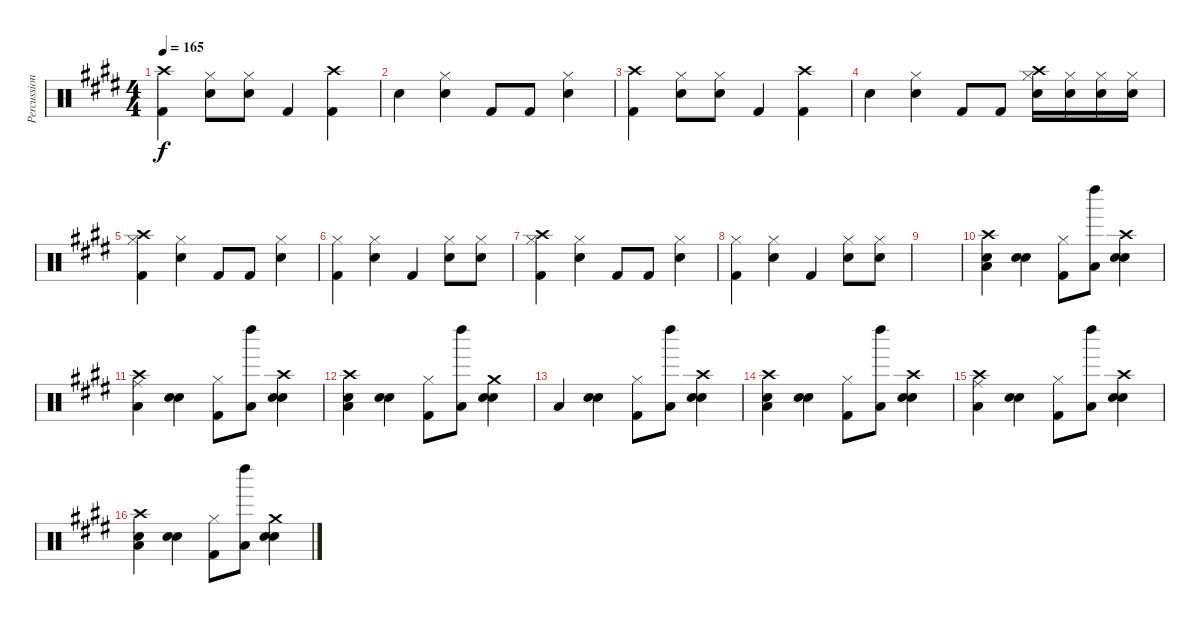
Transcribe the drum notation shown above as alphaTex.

\track ("Percussioni" "Percussion") {instrument percussion}
\staff {score}
\articulation defaults
\ts (4 4)
\tempo 165
\clef neutral
\ks e
("Crash high (hit)" "Kick (hit) 2").4{dy f} ("Snare (hit) 2" "Hi-Hat (closed)").8 ("Snare (hit) 2" "Hi-Hat (closed)").8 "Kick (hit) 2".4 ("Crash high (hit)" "Kick (hit) 2").4 |
"Electric Snare (hit)".4 ("Snare (hit) 2" "Hi-Hat (closed)").4 "Kick (hit) 2".8 "Kick (hit) 2".8 ("Snare (hit) 2" "Hi-Hat (closed)").4 |
("Crash high (hit)" "Kick (hit) 2").4 ("Snare (hit) 2" "Hi-Hat (closed)").8 ("Snare (hit) 2" "Hi-Hat (closed)").8 "Kick (hit) 2".4 ("Crash high (hit)" "Kick (hit) 2").4 |
"Electric Snare (hit)".4 ("Snare (hit) 2" "Hi-Hat (closed)").4 "Kick (hit) 2".8 "Kick (hit) 2".8 ("Snare (hit) 2" "Crash high (hit)" "Hi-Hat (closed)").16 ("Snare (hit) 2" "Hi-Hat (closed)").16 ("Snare (hit) 2" "Hi-Hat (closed)").16 ("Snare (hit) 2" "Hi-Hat (closed)").16 |
("Crash high (hit)" "Kick (hit) 2" "Hi-Hat (closed)").4 ("Snare (hit) 2" "Hi-Hat (closed)").4 "Kick (hit) 2".8 "Kick (hit) 2".8 ("Snare (hit) 2" "Hi-Hat (closed)").4 |
("Kick (hit) 2" "Hi-Hat (closed)").4 ("Snare (hit) 2" "Hi-Hat (closed)").4 "Kick (hit) 2".4 ("Snare (hit) 2" "Hi-Hat (closed)").8 ("Snare (hit) 2" "Hi-Hat (closed)").8 |
("Crash high (hit)" "Kick (hit) 2" "Hi-Hat (closed)").4 ("Snare (hit) 2" "Hi-Hat (closed)").4 "Kick (hit) 2".8 "Kick (hit) 2".8 ("Snare (hit) 2" "Hi-Hat (closed)").4 |
("Kick (hit) 2" "Hi-Hat (closed)").4 ("Snare (hit) 2" "Hi-Hat (closed)").4 "Kick (hit) 2".4 ("Snare (hit) 2" "Hi-Hat (closed)").8 ("Snare (hit) 2" "Hi-Hat (closed)").8 |
|
("Low Floor Tom (hit)" "Crash high (hit)" "Snare (hit) 2").4 ("Electric Snare (hit)" "Snare (hit) 2").4 ("Kick (hit) 2" "Hi-Hat (closed)").8 ("Low Floor Tom (hit)" "Left Maraca (hit)").8 ("Electric Snare (hit)" "Snare (hit) 2" "Crash high (hit)").4 |
("Low Floor Tom (hit)" "Crash high (hit)" "Ride (middle)").4 ("Electric Snare (hit)" "Snare (hit) 2").4 ("Kick (hit) 2" "Hi-Hat (closed)").8 ("Low Floor Tom (hit)" "Left Maraca (hit)").8 ("Electric Snare (hit)" "Snare (hit) 2" "Crash high (hit)").4 |
("Low Floor Tom (hit)" "Crash high (hit)" "Snare (hit) 2").4 ("Electric Snare (hit)" "Snare (hit) 2").4 ("Kick (hit) 2" "Hi-Hat (closed)").8 ("Low Floor Tom (hit)" "Left Maraca (hit)").8 ("Electric Snare (hit)" "Snare (hit) 2" "Crash medium (hit)").4 |
"Low Floor Tom (hit)".4 ("Electric Snare (hit)" "Snare (hit) 2").4 ("Kick (hit) 2" "Hi-Hat (closed)").8 ("Low Floor Tom (hit)" "Left Maraca (hit)").8 ("Electric Snare (hit)" "Snare (hit) 2" "Crash high (hit)").4 |
("Low Floor Tom (hit)" "Crash high (hit)" "Snare (hit) 2").4 ("Electric Snare (hit)" "Snare (hit) 2").4 ("Kick (hit) 2" "Hi-Hat (closed)").8 ("Low Floor Tom (hit)" "Left Maraca (hit)").8 ("Electric Snare (hit)" "Snare (hit) 2" "Crash high (hit)").4 |
("Low Floor Tom (hit)" "Crash high (hit)" "Ride (middle)").4 ("Electric Snare (hit)" "Snare (hit) 2").4 ("Kick (hit) 2" "Hi-Hat (closed)").8 ("Low Floor Tom (hit)" "Left Maraca (hit)").8 ("Electric Snare (hit)" "Snare (hit) 2" "Crash high (hit)").4 |
("Low Floor Tom (hit)" "Crash high (hit)" "Snare (hit) 2").4 ("Electric Snare (hit)" "Snare (hit) 2").4 ("Kick (hit) 2" "Hi-Hat (closed)").8 ("Low Floor Tom (hit)" "Left Maraca (hit)").8 ("Electric Snare (hit)" "Snare (hit) 2" "Crash medium (hit)").4
